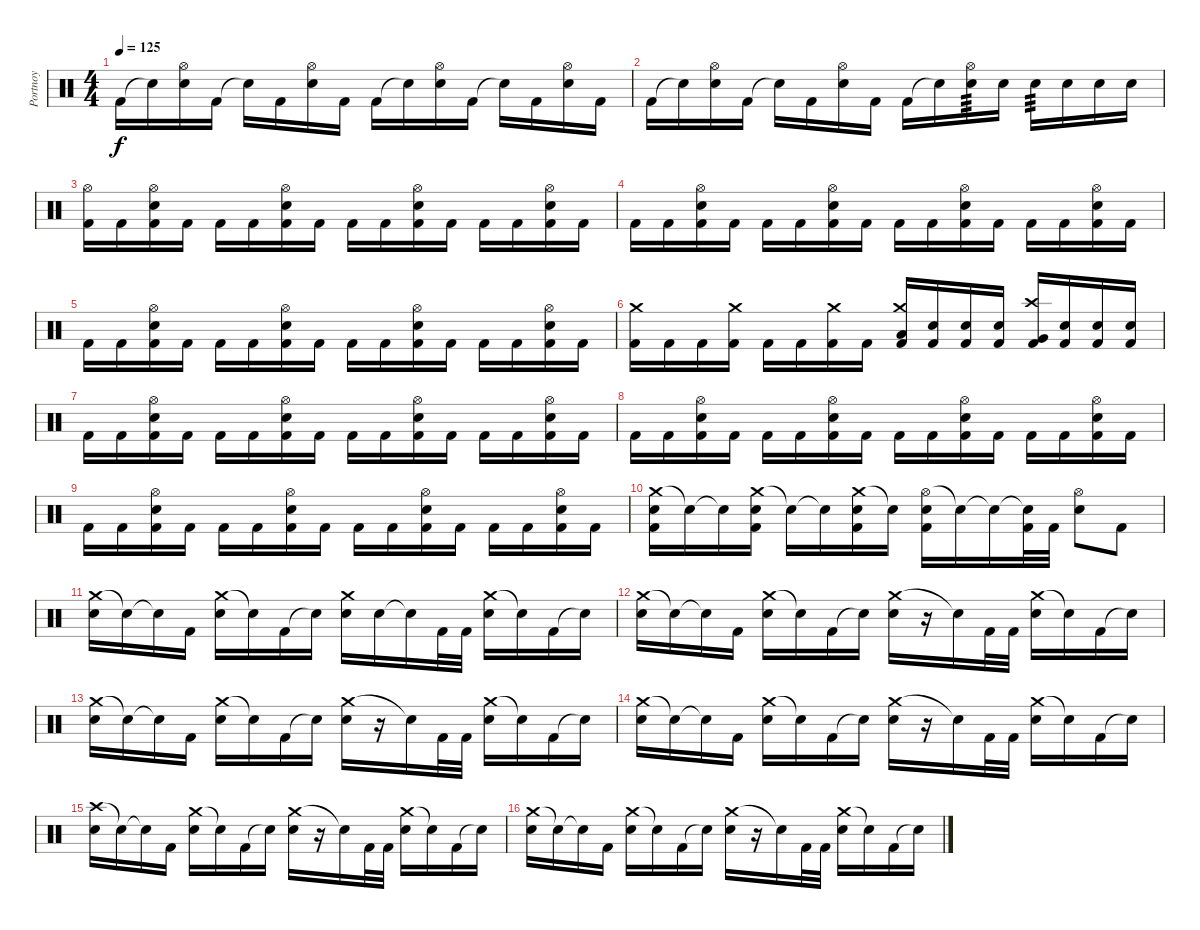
\track ("Portnoy" "Portnoy") {instrument percussion}
\staff {score}
\articulation defaults
\ts (4 4)
\tempo 125
\clef neutral
\ks c "Kick (hit) 2".16{dy f} "Snare (hit)"{t}.16
("Hi-Hat (open)" "Snare (hit) 2").16 "Kick (hit) 2".16 "Snare (hit)"{t}.16 "Kick (hit) 2".16 ("Hi-Hat (open)" "Snare (hit) 2").16 "Kick (hit) 2".16 "Kick (hit) 2".16 "Snare (hit)"{t}.16 ("Hi-Hat (open)" "Snare (hit) 2").16 "Kick (hit) 2".16 "Snare (hit)"{t}.16 "Kick (hit) 2".16 ("Hi-Hat (open)" "Snare (hit) 2").16 "Kick (hit) 2".16 |
"Kick (hit) 2".16 "Snare (hit)"{t}.16 ("Hi-Hat (open)" "Snare (hit) 2").16 "Kick (hit) 2".16 "Snare (hit)"{t}.16 "Kick (hit) 2".16 ("Hi-Hat (open)" "Snare (hit) 2").16 "Kick (hit) 2".16 "Kick (hit) 2".16 "Snare (hit)"{t}.16 ("Hi-Hat (open)" "Snare (hit) 2").16{tp 3} "Snare (hit) 2".16 "Snare (hit) 2".16{tp 3} "Snare (hit) 2".16 "Snare (hit) 2".16 "Snare (hit) 2".16 |
("Hi-Hat (open)" "Kick (hit) 2").16 "Kick (hit) 2".16 ("Hi-Hat (open)" "Snare (hit) 2" "Kick (hit) 2").16 "Kick (hit) 2".16 "Kick (hit) 2".16 "Kick (hit) 2".16 ("Hi-Hat (open)" "Snare (hit) 2" "Kick (hit) 2").16 "Kick (hit) 2".16 "Kick (hit) 2".16 "Kick (hit) 2".16 ("Hi-Hat (open)" "Snare (hit) 2" "Kick (hit) 2").16 "Kick (hit) 2".16 "Kick (hit) 2".16 "Kick (hit) 2".16 ("Hi-Hat (open)" "Snare (hit) 2" "Kick (hit) 2").16 "Kick (hit) 2".16 |
"Kick (hit) 2".16 "Kick (hit) 2".16 ("Hi-Hat (open)" "Snare (hit) 2" "Kick (hit) 2").16 "Kick (hit) 2".16 "Kick (hit) 2".16 "Kick (hit) 2".16 ("Hi-Hat (open)" "Snare (hit) 2" "Kick (hit) 2").16 "Kick (hit) 2".16 "Kick (hit) 2".16 "Kick (hit) 2".16 ("Hi-Hat (open)" "Snare (hit) 2" "Kick (hit) 2").16 "Kick (hit) 2".16 "Kick (hit) 2".16 "Kick (hit) 2".16 ("Hi-Hat (open)" "Snare (hit) 2" "Kick (hit) 2").16 "Kick (hit) 2".16 |
"Kick (hit) 2".16 "Kick (hit) 2".16 ("Hi-Hat (open)" "Snare (hit) 2" "Kick (hit) 2").16 "Kick (hit) 2".16 "Kick (hit) 2".16 "Kick (hit) 2".16 ("Hi-Hat (open)" "Snare (hit) 2" "Kick (hit) 2").16 "Kick (hit) 2".16 "Kick (hit) 2".16 "Kick (hit) 2".16 ("Hi-Hat (open)" "Snare (hit) 2" "Kick (hit) 2").16 "Kick (hit) 2".16 "Kick (hit) 2".16 "Kick (hit) 2".16 ("Hi-Hat (open)" "Snare (hit) 2" "Kick (hit) 2").16 "Kick (hit) 2".16 |
("Crash medium (hit)" "Kick (hit) 2").16 "Kick (hit) 2".16 "Kick (hit) 2".16 ("Crash medium (hit)" "Kick (hit) 2").16 "Kick (hit) 2".16 "Kick (hit) 2".16 ("Crash medium (hit)" "Kick (hit) 2").16 "Kick (hit) 2".16 ("Crash medium (hit)" "Low Tom (hit)" "Kick (hit) 2").16 ("Snare (hit) 2" "Kick (hit) 2").16 ("Snare (hit) 2" "Kick (hit) 2").16 ("Snare (hit) 2" "Kick (hit) 2").16 ("Crash high (hit)" "Very Low Tom (hit)" "Kick (hit) 2").16 ("Snare (hit) 2" "Kick (hit) 2").16 ("Snare (hit) 2" "Kick (hit) 2").16 ("Snare (hit) 2" "Kick (hit) 2").16 |
"Kick (hit) 2".16 "Kick (hit) 2".16 ("Hi-Hat (open)" "Snare (hit) 2" "Kick (hit) 2").16 "Kick (hit) 2".16 "Kick (hit) 2".16 "Kick (hit) 2".16 ("Hi-Hat (open)" "Snare (hit) 2" "Kick (hit) 2").16 "Kick (hit) 2".16 "Kick (hit) 2".16 "Kick (hit) 2".16 ("Hi-Hat (open)" "Snare (hit) 2" "Kick (hit) 2").16 "Kick (hit) 2".16 "Kick (hit) 2".16 "Kick (hit) 2".16 ("Hi-Hat (open)" "Snare (hit) 2" "Kick (hit) 2").16 "Kick (hit) 2".16 |
"Kick (hit) 2".16 "Kick (hit) 2".16 ("Hi-Hat (open)" "Snare (hit) 2" "Kick (hit) 2").16 "Kick (hit) 2".16 "Kick (hit) 2".16 "Kick (hit) 2".16 ("Hi-Hat (open)" "Snare (hit) 2" "Kick (hit) 2").16 "Kick (hit) 2".16 "Kick (hit) 2".16 "Kick (hit) 2".16 ("Hi-Hat (open)" "Snare (hit) 2" "Kick (hit) 2").16 "Kick (hit) 2".16 "Kick (hit) 2".16 "Kick (hit) 2".16 ("Hi-Hat (open)" "Snare (hit) 2" "Kick (hit) 2").16 "Kick (hit) 2".16 |
"Kick (hit) 2".16 "Kick (hit) 2".16 ("Hi-Hat (open)" "Snare (hit) 2" "Kick (hit) 2").16 "Kick (hit) 2".16 "Kick (hit) 2".16 "Kick (hit) 2".16 ("Hi-Hat (open)" "Snare (hit) 2" "Kick (hit) 2").16 "Kick (hit) 2".16 "Kick (hit) 2".16 "Kick (hit) 2".16 ("Hi-Hat (open)" "Snare (hit) 2" "Kick (hit) 2").16 "Kick (hit) 2".16 "Kick (hit) 2".16 "Kick (hit) 2".16 ("Hi-Hat (open)" "Snare (hit) 2" "Kick (hit) 2").16 "Kick (hit) 2".16 |
("Crash medium (hit)" "Snare (hit) 2" "Kick (hit) 2").16 "Snare (hit)"{t}.16 "Snare (hit)"{t}.16 ("Crash medium (hit)" "Snare (hit) 2" "Kick (hit) 2").16 "Snare (hit)"{t}.16 "Snare (hit)"{t}.16 ("Crash medium (hit)" "Snare (hit) 2" "Kick (hit) 2").16 "Snare (hit)"{t}.16 ("Hi-Hat (open)" "Snare (hit) 2" "Kick (hit) 2").16 "Snare (hit)"{t}.16 "Snare (hit)"{t}.16 ("Snare (hit)"{t} "Kick (hit) 2").32 "Kick (hit) 2".32 ("Hi-Hat (open)" "Snare (hit) 2").8 "Kick (hit) 2".8 |
("Crash medium (hit)" "Snare (hit) 2").16 "Snare (hit)"{t}.16 "Snare (hit)"{t}.16 "Kick (hit) 2".16 ("Crash medium (hit)" "Snare (hit) 2").16 "Snare (hit)"{t}.16 "Kick (hit) 2".16 "Snare (hit)"{t}.16 ("Crash medium (hit)" "Snare (hit) 2").16 "Snare (hit) 2".16 "Snare (hit)"{t}.16 "Kick (hit) 2".32 "Kick (hit) 2".32 ("Crash medium (hit)" "Snare (hit) 2").16 "Snare (hit)"{t}.16 "Kick (hit) 2".16 "Snare (hit)"{t}.16 |
("Crash medium (hit)" "Snare (hit) 2").16 "Snare (hit)"{t}.16 "Snare (hit)"{t}.16 "Kick (hit) 2".16 ("Crash medium (hit)" "Snare (hit) 2").16 "Snare (hit)"{t}.16 "Kick (hit) 2".16 "Snare (hit)"{t}.16 ("Crash medium (hit)" "Snare (hit) 2").16 r.16 "Snare (hit)"{t}.16 "Kick (hit) 2".32 "Kick (hit) 2".32 ("Crash medium (hit)" "Snare (hit) 2").16 "Snare (hit)"{t}.16 "Kick (hit) 2".16 "Snare (hit)"{t}.16 |
("Crash medium (hit)" "Snare (hit) 2").16 "Snare (hit)"{t}.16 "Snare (hit)"{t}.16 "Kick (hit) 2".16 ("Crash medium (hit)" "Snare (hit) 2").16 "Snare (hit)"{t}.16 "Kick (hit) 2".16 "Snare (hit)"{t}.16 ("Crash medium (hit)" "Snare (hit) 2").16 r.16 "Snare (hit)"{t}.16 "Kick (hit) 2".32 "Kick (hit) 2".32 ("Crash medium (hit)" "Snare (hit) 2").16 "Snare (hit)"{t}.16 "Kick (hit) 2".16 "Snare (hit)"{t}.16 |
("Crash medium (hit)" "Snare (hit) 2").16 "Snare (hit)"{t}.16 "Snare (hit)"{t}.16 "Kick (hit) 2".16 ("Crash medium (hit)" "Snare (hit) 2").16 "Snare (hit)"{t}.16 "Kick (hit) 2".16 "Snare (hit)"{t}.16 ("Crash medium (hit)" "Snare (hit) 2").16 r.16 "Snare (hit)"{t}.16 "Kick (hit) 2".32 "Kick (hit) 2".32 ("Crash medium (hit)" "Snare (hit) 2").16 "Snare (hit)"{t}.16 "Kick (hit) 2".16 "Snare (hit)"{t}.16 |
("Crash high (hit)" "Snare (hit) 2").16 "Snare (hit)"{t}.16 "Snare (hit)"{t}.16 "Kick (hit) 2".16 ("Crash medium (hit)" "Snare (hit) 2").16 "Snare (hit)"{t}.16 "Kick (hit) 2".16 "Snare (hit)"{t}.16 ("Crash medium (hit)" "Snare (hit) 2").16 r.16 "Snare (hit)"{t}.16 "Kick (hit) 2".32 "Kick (hit) 2".32 ("Crash medium (hit)" "Snare (hit) 2").16 "Snare (hit)"{t}.16 "Kick (hit) 2".16 "Snare (hit)"{t}.16 |
("Crash medium (hit)" "Snare (hit) 2").16 "Snare (hit)"{t}.16 "Snare (hit)"{t}.16 "Kick (hit) 2".16 ("Crash medium (hit)" "Snare (hit) 2").16 "Snare (hit)"{t}.16 "Kick (hit) 2".16 "Snare (hit)"{t}.16 ("Crash medium (hit)" "Snare (hit) 2").16 r.16 "Snare (hit)"{t}.16 "Kick (hit) 2".32 "Kick (hit) 2".32 ("Crash medium (hit)" "Snare (hit) 2").16 "Snare (hit)"{t}.16 "Kick (hit) 2".16 "Snare (hit)"{t}.16
